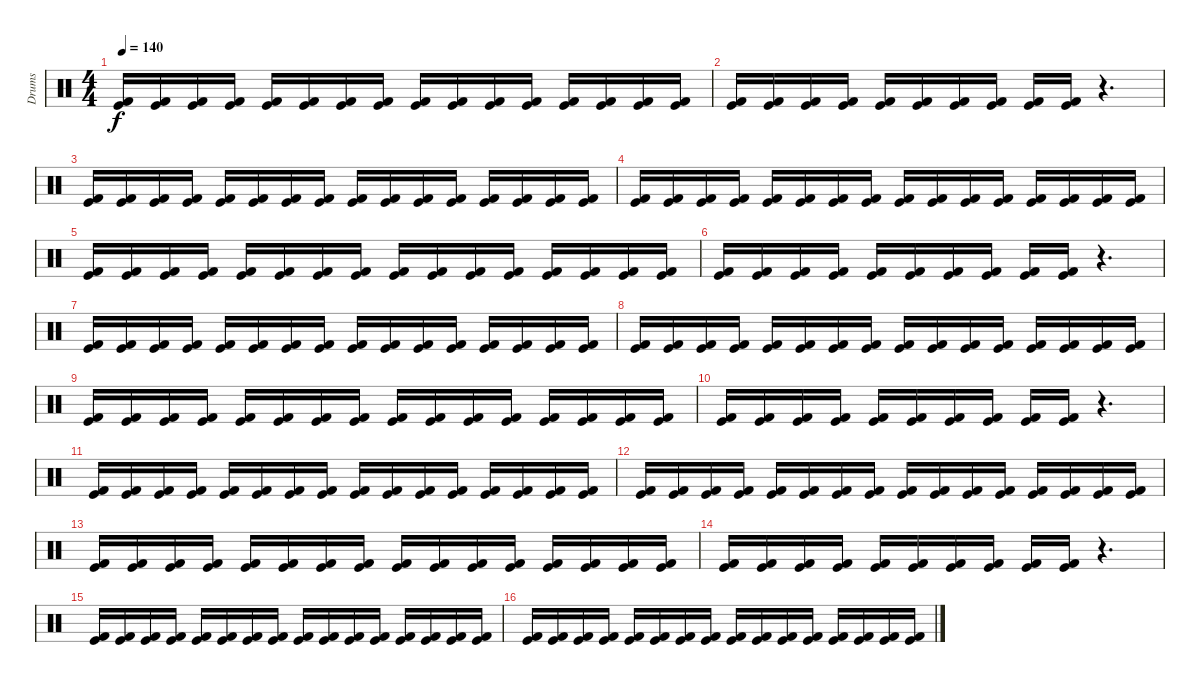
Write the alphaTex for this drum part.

\track ("Drums" "Drums") {instrument percussion}
\staff {score}
\articulation defaults
\ts (4 4)
\tempo 140
\clef neutral
\ks c
("Kick (hit) 2" "Kick (hit)").16{dy f} ("Kick (hit) 2" "Kick (hit)").16 ("Kick (hit) 2" "Kick (hit)").16 ("Kick (hit) 2" "Kick (hit)").16 ("Kick (hit) 2" "Kick (hit)").16 ("Kick (hit) 2" "Kick (hit)").16 ("Kick (hit) 2" "Kick (hit)").16 ("Kick (hit) 2" "Kick (hit)").16 ("Kick (hit) 2" "Kick (hit)").16 ("Kick (hit) 2" "Kick (hit)").16 ("Kick (hit) 2" "Kick (hit)").16 ("Kick (hit) 2" "Kick (hit)").16 ("Kick (hit) 2" "Kick (hit)").16 ("Kick (hit) 2" "Kick (hit)").16 ("Kick (hit) 2" "Kick (hit)").16 ("Kick (hit) 2" "Kick (hit)").16 |
("Kick (hit) 2" "Kick (hit)").16 ("Kick (hit) 2" "Kick (hit)").16 ("Kick (hit) 2" "Kick (hit)").16 ("Kick (hit) 2" "Kick (hit)").16 ("Kick (hit) 2" "Kick (hit)").16 ("Kick (hit) 2" "Kick (hit)").16 ("Kick (hit) 2" "Kick (hit)").16 ("Kick (hit) 2" "Kick (hit)").16 ("Kick (hit) 2" "Kick (hit)").16 ("Kick (hit) 2" "Kick (hit)").16 r.4{d} |
("Kick (hit) 2" "Kick (hit)").16 ("Kick (hit) 2" "Kick (hit)").16 ("Kick (hit) 2" "Kick (hit)").16 ("Kick (hit) 2" "Kick (hit)").16 ("Kick (hit) 2" "Kick (hit)").16 ("Kick (hit) 2" "Kick (hit)").16 ("Kick (hit) 2" "Kick (hit)").16 ("Kick (hit) 2" "Kick (hit)").16 ("Kick (hit) 2" "Kick (hit)").16 ("Kick (hit) 2" "Kick (hit)").16 ("Kick (hit) 2" "Kick (hit)").16 ("Kick (hit) 2" "Kick (hit)").16 ("Kick (hit) 2" "Kick (hit)").16 ("Kick (hit) 2" "Kick (hit)").16 ("Kick (hit) 2" "Kick (hit)").16 ("Kick (hit) 2" "Kick (hit)").16 |
("Kick (hit) 2" "Kick (hit)").16 ("Kick (hit) 2" "Kick (hit)").16 ("Kick (hit) 2" "Kick (hit)").16 ("Kick (hit) 2" "Kick (hit)").16 ("Kick (hit) 2" "Kick (hit)").16 ("Kick (hit) 2" "Kick (hit)").16 ("Kick (hit) 2" "Kick (hit)").16 ("Kick (hit) 2" "Kick (hit)").16 ("Kick (hit) 2" "Kick (hit)").16 ("Kick (hit) 2" "Kick (hit)").16 ("Kick (hit) 2" "Kick (hit)").16 ("Kick (hit) 2" "Kick (hit)").16 ("Kick (hit) 2" "Kick (hit)").16 ("Kick (hit) 2" "Kick (hit)").16 ("Kick (hit) 2" "Kick (hit)").16 ("Kick (hit) 2" "Kick (hit)").16 |
("Kick (hit) 2" "Kick (hit)").16 ("Kick (hit) 2" "Kick (hit)").16 ("Kick (hit) 2" "Kick (hit)").16 ("Kick (hit) 2" "Kick (hit)").16 ("Kick (hit) 2" "Kick (hit)").16 ("Kick (hit) 2" "Kick (hit)").16 ("Kick (hit) 2" "Kick (hit)").16 ("Kick (hit) 2" "Kick (hit)").16 ("Kick (hit) 2" "Kick (hit)").16 ("Kick (hit) 2" "Kick (hit)").16 ("Kick (hit) 2" "Kick (hit)").16 ("Kick (hit) 2" "Kick (hit)").16 ("Kick (hit) 2" "Kick (hit)").16 ("Kick (hit) 2" "Kick (hit)").16 ("Kick (hit) 2" "Kick (hit)").16 ("Kick (hit) 2" "Kick (hit)").16 |
("Kick (hit) 2" "Kick (hit)").16 ("Kick (hit) 2" "Kick (hit)").16 ("Kick (hit) 2" "Kick (hit)").16 ("Kick (hit) 2" "Kick (hit)").16 ("Kick (hit) 2" "Kick (hit)").16 ("Kick (hit) 2" "Kick (hit)").16 ("Kick (hit) 2" "Kick (hit)").16 ("Kick (hit) 2" "Kick (hit)").16 ("Kick (hit) 2" "Kick (hit)").16 ("Kick (hit) 2" "Kick (hit)").16 r.4{d} |
("Kick (hit) 2" "Kick (hit)").16 ("Kick (hit) 2" "Kick (hit)").16 ("Kick (hit) 2" "Kick (hit)").16 ("Kick (hit) 2" "Kick (hit)").16 ("Kick (hit) 2" "Kick (hit)").16 ("Kick (hit) 2" "Kick (hit)").16 ("Kick (hit) 2" "Kick (hit)").16 ("Kick (hit) 2" "Kick (hit)").16 ("Kick (hit) 2" "Kick (hit)").16 ("Kick (hit) 2" "Kick (hit)").16 ("Kick (hit) 2" "Kick (hit)").16 ("Kick (hit) 2" "Kick (hit)").16 ("Kick (hit) 2" "Kick (hit)").16 ("Kick (hit) 2" "Kick (hit)").16 ("Kick (hit) 2" "Kick (hit)").16 ("Kick (hit) 2" "Kick (hit)").16 |
("Kick (hit) 2" "Kick (hit)").16 ("Kick (hit) 2" "Kick (hit)").16 ("Kick (hit) 2" "Kick (hit)").16 ("Kick (hit) 2" "Kick (hit)").16 ("Kick (hit) 2" "Kick (hit)").16 ("Kick (hit) 2" "Kick (hit)").16 ("Kick (hit) 2" "Kick (hit)").16 ("Kick (hit) 2" "Kick (hit)").16 ("Kick (hit) 2" "Kick (hit)").16 ("Kick (hit) 2" "Kick (hit)").16 ("Kick (hit) 2" "Kick (hit)").16 ("Kick (hit) 2" "Kick (hit)").16 ("Kick (hit) 2" "Kick (hit)").16 ("Kick (hit) 2" "Kick (hit)").16 ("Kick (hit) 2" "Kick (hit)").16 ("Kick (hit) 2" "Kick (hit)").16 |
("Kick (hit) 2" "Kick (hit)").16 ("Kick (hit) 2" "Kick (hit)").16 ("Kick (hit) 2" "Kick (hit)").16 ("Kick (hit) 2" "Kick (hit)").16 ("Kick (hit) 2" "Kick (hit)").16 ("Kick (hit) 2" "Kick (hit)").16 ("Kick (hit) 2" "Kick (hit)").16 ("Kick (hit) 2" "Kick (hit)").16 ("Kick (hit) 2" "Kick (hit)").16 ("Kick (hit) 2" "Kick (hit)").16 ("Kick (hit) 2" "Kick (hit)").16 ("Kick (hit) 2" "Kick (hit)").16 ("Kick (hit) 2" "Kick (hit)").16 ("Kick (hit) 2" "Kick (hit)").16 ("Kick (hit) 2" "Kick (hit)").16 ("Kick (hit) 2" "Kick (hit)").16 |
("Kick (hit) 2" "Kick (hit)").16 ("Kick (hit) 2" "Kick (hit)").16 ("Kick (hit) 2" "Kick (hit)").16 ("Kick (hit) 2" "Kick (hit)").16 ("Kick (hit) 2" "Kick (hit)").16 ("Kick (hit) 2" "Kick (hit)").16 ("Kick (hit) 2" "Kick (hit)").16 ("Kick (hit) 2" "Kick (hit)").16 ("Kick (hit) 2" "Kick (hit)").16 ("Kick (hit) 2" "Kick (hit)").16 r.4{d} |
("Kick (hit) 2" "Kick (hit)").16 ("Kick (hit) 2" "Kick (hit)").16 ("Kick (hit) 2" "Kick (hit)").16 ("Kick (hit) 2" "Kick (hit)").16 ("Kick (hit) 2" "Kick (hit)").16 ("Kick (hit) 2" "Kick (hit)").16 ("Kick (hit) 2" "Kick (hit)").16 ("Kick (hit) 2" "Kick (hit)").16 ("Kick (hit) 2" "Kick (hit)").16 ("Kick (hit) 2" "Kick (hit)").16 ("Kick (hit) 2" "Kick (hit)").16 ("Kick (hit) 2" "Kick (hit)").16 ("Kick (hit) 2" "Kick (hit)").16 ("Kick (hit) 2" "Kick (hit)").16 ("Kick (hit) 2" "Kick (hit)").16 ("Kick (hit) 2" "Kick (hit)").16 |
("Kick (hit) 2" "Kick (hit)").16 ("Kick (hit) 2" "Kick (hit)").16 ("Kick (hit) 2" "Kick (hit)").16 ("Kick (hit) 2" "Kick (hit)").16 ("Kick (hit) 2" "Kick (hit)").16 ("Kick (hit) 2" "Kick (hit)").16 ("Kick (hit) 2" "Kick (hit)").16 ("Kick (hit) 2" "Kick (hit)").16 ("Kick (hit) 2" "Kick (hit)").16 ("Kick (hit) 2" "Kick (hit)").16 ("Kick (hit) 2" "Kick (hit)").16 ("Kick (hit) 2" "Kick (hit)").16 ("Kick (hit) 2" "Kick (hit)").16 ("Kick (hit) 2" "Kick (hit)").16 ("Kick (hit) 2" "Kick (hit)").16 ("Kick (hit) 2" "Kick (hit)").16 |
("Kick (hit) 2" "Kick (hit)").16 ("Kick (hit) 2" "Kick (hit)").16 ("Kick (hit) 2" "Kick (hit)").16 ("Kick (hit) 2" "Kick (hit)").16 ("Kick (hit) 2" "Kick (hit)").16 ("Kick (hit) 2" "Kick (hit)").16 ("Kick (hit) 2" "Kick (hit)").16 ("Kick (hit) 2" "Kick (hit)").16 ("Kick (hit) 2" "Kick (hit)").16 ("Kick (hit) 2" "Kick (hit)").16 ("Kick (hit) 2" "Kick (hit)").16 ("Kick (hit) 2" "Kick (hit)").16 ("Kick (hit) 2" "Kick (hit)").16 ("Kick (hit) 2" "Kick (hit)").16 ("Kick (hit) 2" "Kick (hit)").16 ("Kick (hit) 2" "Kick (hit)").16 |
("Kick (hit) 2" "Kick (hit)").16 ("Kick (hit) 2" "Kick (hit)").16 ("Kick (hit) 2" "Kick (hit)").16 ("Kick (hit) 2" "Kick (hit)").16 ("Kick (hit) 2" "Kick (hit)").16 ("Kick (hit) 2" "Kick (hit)").16 ("Kick (hit) 2" "Kick (hit)").16 ("Kick (hit) 2" "Kick (hit)").16 ("Kick (hit) 2" "Kick (hit)").16 ("Kick (hit) 2" "Kick (hit)").16 r.4{d} |
("Kick (hit) 2" "Kick (hit)").16 ("Kick (hit) 2" "Kick (hit)").16 ("Kick (hit) 2" "Kick (hit)").16 ("Kick (hit) 2" "Kick (hit)").16 ("Kick (hit) 2" "Kick (hit)").16 ("Kick (hit) 2" "Kick (hit)").16 ("Kick (hit) 2" "Kick (hit)").16 ("Kick (hit) 2" "Kick (hit)").16 ("Kick (hit) 2" "Kick (hit)").16 ("Kick (hit) 2" "Kick (hit)").16 ("Kick (hit) 2" "Kick (hit)").16 ("Kick (hit) 2" "Kick (hit)").16 ("Kick (hit) 2" "Kick (hit)").16 ("Kick (hit) 2" "Kick (hit)").16 ("Kick (hit) 2" "Kick (hit)").16 ("Kick (hit) 2" "Kick (hit)").16 |
("Kick (hit) 2" "Kick (hit)").16 ("Kick (hit) 2" "Kick (hit)").16 ("Kick (hit) 2" "Kick (hit)").16 ("Kick (hit) 2" "Kick (hit)").16 ("Kick (hit) 2" "Kick (hit)").16 ("Kick (hit) 2" "Kick (hit)").16 ("Kick (hit) 2" "Kick (hit)").16 ("Kick (hit) 2" "Kick (hit)").16 ("Kick (hit) 2" "Kick (hit)").16 ("Kick (hit) 2" "Kick (hit)").16 ("Kick (hit) 2" "Kick (hit)").16 ("Kick (hit) 2" "Kick (hit)").16 ("Kick (hit) 2" "Kick (hit)").16 ("Kick (hit) 2" "Kick (hit)").16 ("Kick (hit) 2" "Kick (hit)").16 ("Kick (hit) 2" "Kick (hit)").16
